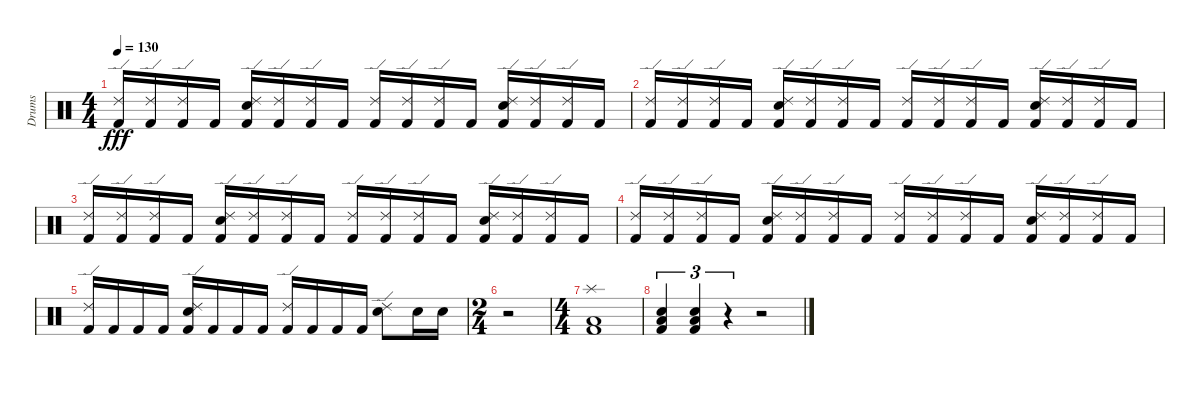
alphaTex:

\track ("Drums" "Drums") {instrument percussion}
\staff {score}
\articulation defaults
\ts (4 4)
\tempo 130
\clef neutral
\ks c
("Ride (edge) 2" "Kick (hit) 2").16{dy fff} ("Ride (edge) 2" "Kick (hit) 2").16 ("Ride (edge) 2" "Kick (hit) 2").16 "Kick (hit) 2".16 ("Ride (edge) 2" "Kick (hit) 2" "Electric Snare (hit)").16 ("Ride (edge) 2" "Kick (hit) 2").16 ("Ride (edge) 2" "Kick (hit) 2").16 "Kick (hit) 2".16 ("Ride (edge) 2" "Kick (hit) 2").16 ("Ride (edge) 2" "Kick (hit) 2").16 ("Ride (edge) 2" "Kick (hit) 2").16 "Kick (hit) 2".16 ("Electric Snare (hit)" "Ride (edge) 2" "Kick (hit) 2").16 ("Ride (edge) 2" "Kick (hit) 2").16 ("Ride (edge) 2" "Kick (hit) 2").16 "Kick (hit) 2".16 |
("Ride (edge) 2" "Kick (hit) 2").16 ("Ride (edge) 2" "Kick (hit) 2").16 ("Ride (edge) 2" "Kick (hit) 2").16 "Kick (hit) 2".16 ("Electric Snare (hit)" "Ride (edge) 2" "Kick (hit) 2").16 ("Ride (edge) 2" "Kick (hit) 2").16 ("Ride (edge) 2" "Kick (hit) 2").16 "Kick (hit) 2".16 ("Ride (edge) 2" "Kick (hit) 2").16 ("Ride (edge) 2" "Kick (hit) 2").16 ("Ride (edge) 2" "Kick (hit) 2").16 "Kick (hit) 2".16 ("Electric Snare (hit)" "Ride (edge) 2" "Kick (hit) 2").16 ("Ride (edge) 2" "Kick (hit) 2").16 ("Ride (edge) 2" "Kick (hit) 2").16 "Kick (hit) 2".16 |
("Ride (edge) 2" "Kick (hit) 2").16 ("Ride (edge) 2" "Kick (hit) 2").16 ("Ride (edge) 2" "Kick (hit) 2").16 "Kick (hit) 2".16 ("Ride (edge) 2" "Kick (hit) 2" "Electric Snare (hit)").16 ("Ride (edge) 2" "Kick (hit) 2").16 ("Ride (edge) 2" "Kick (hit) 2").16 "Kick (hit) 2".16 ("Ride (edge) 2" "Kick (hit) 2").16 ("Ride (edge) 2" "Kick (hit) 2").16 ("Ride (edge) 2" "Kick (hit) 2").16 "Kick (hit) 2".16 ("Electric Snare (hit)" "Ride (edge) 2" "Kick (hit) 2").16 ("Ride (edge) 2" "Kick (hit) 2").16 ("Ride (edge) 2" "Kick (hit) 2").16 "Kick (hit) 2".16 |
("Ride (edge) 2" "Kick (hit) 2").16 ("Ride (edge) 2" "Kick (hit) 2").16 ("Ride (edge) 2" "Kick (hit) 2").16 "Kick (hit) 2".16 ("Electric Snare (hit)" "Ride (edge) 2" "Kick (hit) 2").16 ("Ride (edge) 2" "Kick (hit) 2").16 ("Ride (edge) 2" "Kick (hit) 2").16 "Kick (hit) 2".16 ("Ride (edge) 2" "Kick (hit) 2").16 ("Ride (edge) 2" "Kick (hit) 2").16 ("Ride (edge) 2" "Kick (hit) 2").16 "Kick (hit) 2".16 ("Electric Snare (hit)" "Ride (edge) 2" "Kick (hit) 2").16 ("Ride (edge) 2" "Kick (hit) 2").16 ("Ride (edge) 2" "Kick (hit) 2").16 "Kick (hit) 2".16 |
("Ride (edge) 2" "Kick (hit) 2").16 "Kick (hit) 2".16 "Kick (hit) 2".16 "Kick (hit) 2".16 ("Electric Snare (hit)" "Ride (edge) 2" "Kick (hit) 2").16 "Kick (hit) 2".16 "Kick (hit) 2".16 "Kick (hit) 2".16 ("Ride (edge) 2" "Kick (hit) 2").16 "Kick (hit) 2".16 "Kick (hit) 2".16 "Kick (hit) 2".16 ("Ride (edge) 2" "Electric Snare (hit)").8 "Electric Snare (hit)".16 "Electric Snare (hit)".16 |
\ts (2 4)
r.2 |
\ts (4 4)
("Kick (hit) 2" "Low Tom (hit)" "Splash (hit)").1 |
("Low Floor Tom (hit)" "Electric Snare (hit)" "Kick (hit) 2").4{tu (3 2)} ("Low Floor Tom (hit)" "Electric Snare (hit)" "Kick (hit) 2").4{tu (3 2)} r.4{tu (3 2)} r.2
